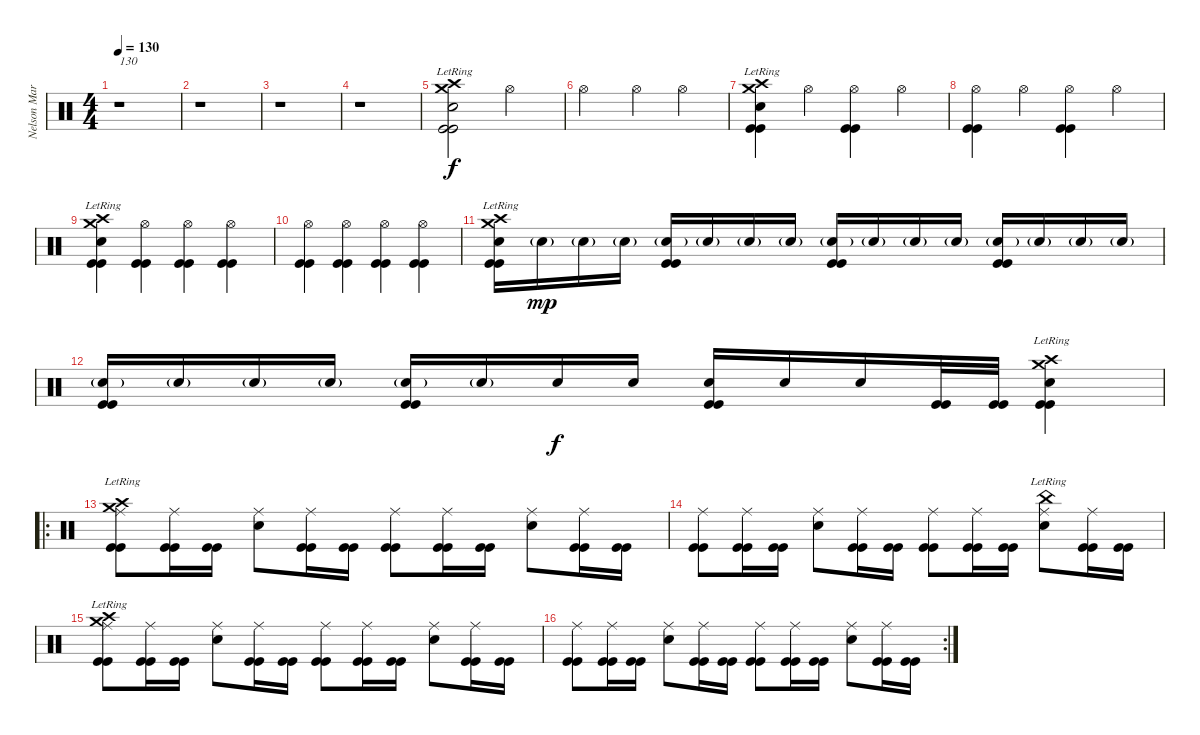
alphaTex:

\track ("Nelson Maria" "Nelson Mar") {instrument percussion}
\staff {score}
\articulation defaults
\ts (4 4)
\tempo 130
\clef neutral
\ks c
r.1{txt "130" dy f} |
r.1 |
r.1 |
r.1 |
("Crash high (hit)"{lr} "Crash medium (hit)"{lr} "Snare (hit) 2" "Kick (hit)" "Kick (hit)").2 "Hi-Hat (open)".2 |
"Hi-Hat (open)".2 "Hi-Hat (open)".4 "Hi-Hat (open)".4 |
("Crash high (hit)"{lr} "Crash medium (hit)"{lr} "Snare (hit) 2" "Kick (hit)" "Kick (hit)").4 "Hi-Hat (open)".4 ("Hi-Hat (open)" "Kick (hit)" "Kick (hit)").4 "Hi-Hat (open)".4 |
("Hi-Hat (open)" "Kick (hit)" "Kick (hit)").4 "Hi-Hat (open)".4 ("Hi-Hat (open)" "Kick (hit)" "Kick (hit)").4 "Hi-Hat (open)".4 |
("Crash high (hit)"{lr} "Crash medium (hit)"{lr} "Snare (hit) 2" "Kick (hit)" "Kick (hit)").4 ("Hi-Hat (open)" "Kick (hit)" "Kick (hit)").4 ("Hi-Hat (open)" "Kick (hit)" "Kick (hit)").4 ("Hi-Hat (open)" "Kick (hit)" "Kick (hit)").4 |
("Hi-Hat (open)" "Kick (hit)" "Kick (hit)").4 ("Hi-Hat (open)" "Kick (hit)" "Kick (hit)").4 ("Hi-Hat (open)" "Kick (hit)" "Kick (hit)").4 ("Hi-Hat (open)" "Kick (hit)" "Kick (hit)").4 |
("Crash high (hit)"{lr} "Crash medium (hit)"{lr} "Snare (hit) 2" "Kick (hit)" "Kick (hit)").16 "Snare (hit) 2"{g}.16{dy mp} "Snare (hit) 2"{g}.16 "Snare (hit) 2"{g}.16 ("Snare (hit) 2"{g} "Kick (hit)" "Kick (hit)").16 "Snare (hit) 2"{g}.16 "Snare (hit) 2"{g}.16 "Snare (hit) 2"{g}.16 ("Snare (hit) 2"{g} "Kick (hit)" "Kick (hit)").16 "Snare (hit) 2"{g}.16 "Snare (hit) 2"{g}.16 "Snare (hit) 2"{g}.16 ("Snare (hit) 2"{g} "Kick (hit)" "Kick (hit)").16 "Snare (hit) 2"{g}.16 "Snare (hit) 2"{g}.16 "Snare (hit) 2"{g}.16 |
("Snare (hit) 2"{g} "Kick (hit)" "Kick (hit)").16 "Snare (hit) 2"{g}.16 "Snare (hit) 2"{g}.16 "Snare (hit) 2"{g}.16 ("Snare (hit) 2"{g} "Kick (hit)" "Kick (hit)").16 "Snare (hit) 2"{g}.16 "Snare (hit) 2".16{dy f} "Snare (hit) 2".16 ("Snare (hit) 2" "Kick (hit)" "Kick (hit)").16 "Snare (hit) 2".16 "Snare (hit) 2".16 ("Kick (hit)" "Kick (hit)").32 ("Kick (hit)" "Kick (hit)").32 ("Crash high (hit)"{lr} "Crash medium (hit)"{lr} "Snare (hit) 2" "Kick (hit)" "Kick (hit)").4 |
\ro
("Crash high (hit)"{lr} "Crash medium (hit)"{lr} "Ride (middle)" "Kick (hit)" "Kick (hit)").8 ("Ride (middle)" "Kick (hit)" "Kick (hit)").16 ("Kick (hit)" "Kick (hit)").16 ("Snare (hit) 2" "Ride (middle)").8 ("Ride (middle)" "Kick (hit)" "Kick (hit)").16 ("Kick (hit)" "Kick (hit)").16 ("Ride (middle)" "Kick (hit)" "Kick (hit)").8 ("Ride (middle)" "Kick (hit)" "Kick (hit)").16 ("Kick (hit)" "Kick (hit)").16 ("Snare (hit) 2" "Ride (middle)").8 ("Ride (middle)" "Kick (hit)" "Kick (hit)").16 ("Kick (hit)" "Kick (hit)").16 |
("Ride (middle)" "Kick (hit)" "Kick (hit)").8 ("Ride (middle)" "Kick (hit)" "Kick (hit)").16 ("Kick (hit)" "Kick (hit)").16 ("Snare (hit) 2" "Ride (middle)").8 ("Ride (middle)" "Kick (hit)" "Kick (hit)").16 ("Kick (hit)" "Kick (hit)").16 ("Ride (middle)" "Kick (hit)" "Kick (hit)").8 ("Ride (middle)" "Kick (hit)" "Kick (hit)").16 ("Kick (hit)" "Kick (hit)").16 ("China (hit)"{lr} "Snare (hit) 2" "Ride (middle)").8 ("Ride (middle)" "Kick (hit)" "Kick (hit)").16 ("Kick (hit)" "Kick (hit)").16 |
("Crash high (hit)"{lr} "Crash medium (hit)"{lr} "Ride (middle)" "Kick (hit)" "Kick (hit)").8 ("Ride (middle)" "Kick (hit)" "Kick (hit)").16 ("Kick (hit)" "Kick (hit)").16 ("Snare (hit) 2" "Ride (middle)").8 ("Ride (middle)" "Kick (hit)" "Kick (hit)").16 ("Kick (hit)" "Kick (hit)").16 ("Ride (middle)" "Kick (hit)" "Kick (hit)").8 ("Ride (middle)" "Kick (hit)" "Kick (hit)").16 ("Kick (hit)" "Kick (hit)").16 ("Snare (hit) 2" "Ride (middle)").8 ("Ride (middle)" "Kick (hit)" "Kick (hit)").16 ("Kick (hit)" "Kick (hit)").16 |
\rc 2
("Ride (middle)" "Kick (hit)" "Kick (hit)").8 ("Ride (middle)" "Kick (hit)" "Kick (hit)").16 ("Kick (hit)" "Kick (hit)").16 ("Snare (hit) 2" "Ride (middle)").8 ("Ride (middle)" "Kick (hit)" "Kick (hit)").16 ("Kick (hit)" "Kick (hit)").16 ("Ride (middle)" "Kick (hit)" "Kick (hit)").8 ("Ride (middle)" "Kick (hit)" "Kick (hit)").16 ("Kick (hit)" "Kick (hit)").16 ("Snare (hit) 2" "Ride (middle)").8 ("Ride (middle)" "Kick (hit)" "Kick (hit)").16 ("Kick (hit)" "Kick (hit)").16
